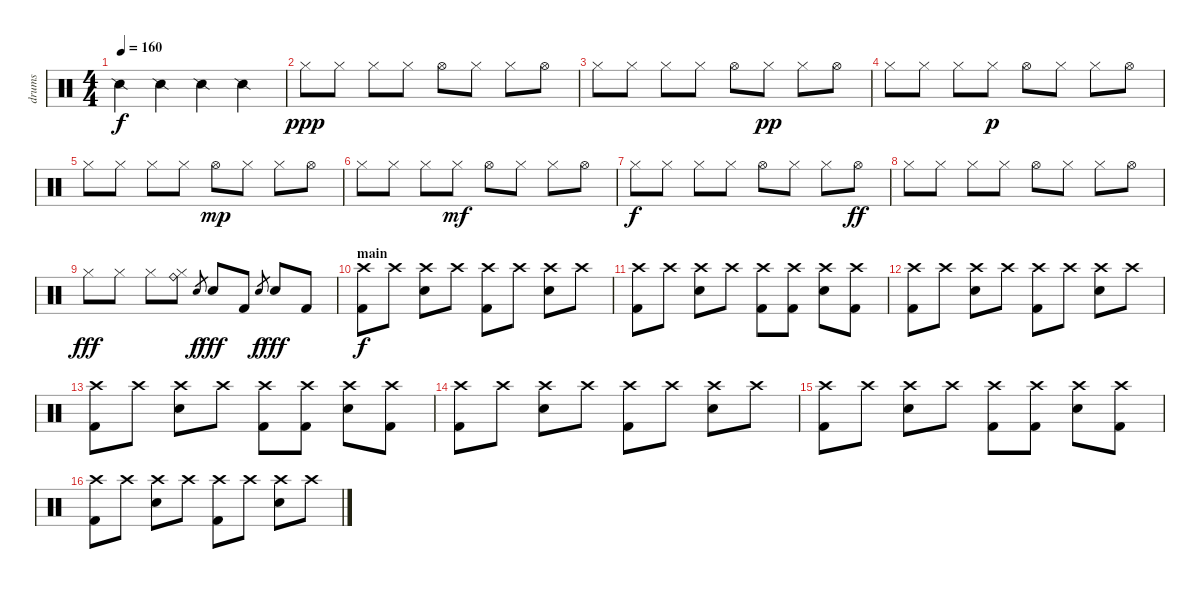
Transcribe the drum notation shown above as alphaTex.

\track ("drums" "drums") {instrument percussion}
\staff {score}
\articulation defaults
\ts (4 4)
\tempo 160
\clef neutral
\ks c "Snare (side stick) 2".4{dy f} "Snare (side stick) 2".4 "Snare (side stick) 2".4 "Snare (side stick) 2".4
|
"Hi-Hat (closed)".8{dy ppp} "Hi-Hat (closed)".8 "Hi-Hat (closed)".8 "Hi-Hat (closed)".8 "Hi-Hat (open)".8 "Hi-Hat (closed)".8 "Hi-Hat (closed)".8 "Hi-Hat (open)".8 |
"Hi-Hat (closed)".8 "Hi-Hat (closed)".8 "Hi-Hat (closed)".8 "Hi-Hat (closed)".8 "Hi-Hat (open)".8 "Hi-Hat (closed)".8{dy pp} "Hi-Hat (closed)".8 "Hi-Hat (open)".8 |
"Hi-Hat (closed)".8 "Hi-Hat (closed)".8 "Hi-Hat (closed)".8 "Hi-Hat (closed)".8{dy p} "Hi-Hat (open)".8 "Hi-Hat (closed)".8 "Hi-Hat (closed)".8 "Hi-Hat (open)".8 |
"Hi-Hat (closed)".8 "Hi-Hat (closed)".8 "Hi-Hat (closed)".8 "Hi-Hat (closed)".8 "Hi-Hat (open)".8{dy mp} "Hi-Hat (closed)".8 "Hi-Hat (closed)".8 "Hi-Hat (open)".8 |
"Hi-Hat (closed)".8 "Hi-Hat (closed)".8 "Hi-Hat (closed)".8 "Hi-Hat (closed)".8{dy mf} "Hi-Hat (open)".8 "Hi-Hat (closed)".8 "Hi-Hat (closed)".8 "Hi-Hat (open)".8 |
"Hi-Hat (closed)".8{dy f} "Hi-Hat (closed)".8 "Hi-Hat (closed)".8 "Hi-Hat (closed)".8 "Hi-Hat (open)".8 "Hi-Hat (closed)".8 "Hi-Hat (closed)".8 "Hi-Hat (open)".8{dy ff} |
"Hi-Hat (closed)".8 "Hi-Hat (closed)".8 "Hi-Hat (closed)".8 "Hi-Hat (closed)".8 "Hi-Hat (open)".8 "Hi-Hat (closed)".8 "Hi-Hat (closed)".8 "Hi-Hat (open)".8 |
"Hi-Hat (closed)".8{dy fff} "Hi-Hat (closed)".8 "Hi-Hat (closed)".8 ("Ride (bell)" "Hi-Hat (closed)").8 "Electric Snare (hit)".8{gr dy f} "Electric Snare (hit)".8{dy fff} "Kick (hit) 2".8 "Electric Snare (hit)".8{gr dy f} "Electric Snare (hit)".8{dy fff} "Kick (hit) 2".8 |
\section ("" "main")
("Crash high (hit)" "Kick (hit) 2").8{dy f} "Crash high (hit)".8 ("Crash high (hit)" "Electric Snare (hit)").8 "Crash high (hit)".8 ("Crash high (hit)" "Kick (hit) 2").8 "Crash high (hit)".8 ("Crash high (hit)" "Electric Snare (hit)").8 "Crash high (hit)".8 |
("Crash high (hit)" "Kick (hit) 2").8 "Crash high (hit)".8 ("Crash high (hit)" "Electric Snare (hit)").8 "Crash high (hit)".8 ("Crash high (hit)" "Kick (hit) 2").8 ("Crash high (hit)" "Kick (hit) 2").8 ("Crash high (hit)" "Electric Snare (hit)").8 ("Crash high (hit)" "Kick (hit) 2").8 |
("Crash high (hit)" "Kick (hit) 2").8 "Crash high (hit)".8 ("Crash high (hit)" "Electric Snare (hit)").8 "Crash high (hit)".8 ("Crash high (hit)" "Kick (hit) 2").8 "Crash high (hit)".8 ("Crash high (hit)" "Electric Snare (hit)").8 "Crash high (hit)".8 |
("Crash high (hit)" "Kick (hit) 2").8 "Crash high (hit)".8 ("Crash high (hit)" "Electric Snare (hit)").8 "Crash high (hit)".8 ("Crash high (hit)" "Kick (hit) 2").8 ("Crash high (hit)" "Kick (hit) 2").8 ("Crash high (hit)" "Electric Snare (hit)").8 ("Crash high (hit)" "Kick (hit) 2").8 |
("Crash high (hit)" "Kick (hit) 2").8 "Crash high (hit)".8 ("Crash high (hit)" "Electric Snare (hit)").8 "Crash high (hit)".8 ("Crash high (hit)" "Kick (hit) 2").8 "Crash high (hit)".8 ("Crash high (hit)" "Electric Snare (hit)").8 "Crash high (hit)".8 |
("Crash high (hit)" "Kick (hit) 2").8 "Crash high (hit)".8 ("Crash high (hit)" "Electric Snare (hit)").8 "Crash high (hit)".8 ("Crash high (hit)" "Kick (hit) 2").8 ("Crash high (hit)" "Kick (hit) 2").8 ("Crash high (hit)" "Electric Snare (hit)").8 ("Crash high (hit)" "Kick (hit) 2").8 |
("Crash high (hit)" "Kick (hit) 2").8 "Crash high (hit)".8 ("Crash high (hit)" "Electric Snare (hit)").8 "Crash high (hit)".8 ("Crash high (hit)" "Kick (hit) 2").8 "Crash high (hit)".8 ("Crash high (hit)" "Electric Snare (hit)").8 "Crash high (hit)".8
